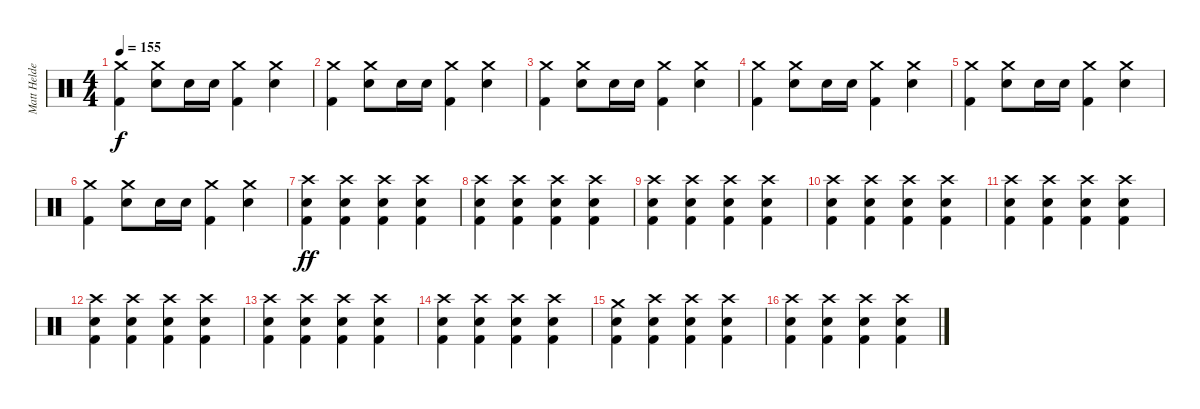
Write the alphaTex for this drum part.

\track ("Matt Helders" "Matt Helde") {instrument percussion}
\staff {score}
\articulation defaults
\ts (4 4)
\tempo 155
\clef neutral
\ks c
("Crash medium (hit)" "Kick (hit) 2").4{dy f} ("Crash medium (hit)" "Snare (hit) 2").8 "Snare (hit) 2".16 "Snare (hit) 2".16 ("Crash medium (hit)" "Kick (hit) 2").4 ("Crash medium (hit)" "Snare (hit) 2").4 |
("Crash medium (hit)" "Kick (hit) 2").4 ("Crash medium (hit)" "Snare (hit) 2").8 "Snare (hit) 2".16 "Snare (hit) 2".16 ("Crash medium (hit)" "Kick (hit) 2").4 ("Crash medium (hit)" "Snare (hit) 2").4 |
("Crash medium (hit)" "Kick (hit) 2").4 ("Crash medium (hit)" "Snare (hit) 2").8 "Snare (hit) 2".16 "Snare (hit) 2".16 ("Crash medium (hit)" "Kick (hit) 2").4 ("Crash medium (hit)" "Snare (hit) 2").4 |
("Crash medium (hit)" "Kick (hit) 2").4 ("Crash medium (hit)" "Snare (hit) 2").8 "Snare (hit) 2".16 "Snare (hit) 2".16 ("Crash medium (hit)" "Kick (hit) 2").4 ("Crash medium (hit)" "Snare (hit) 2").4 |
("Crash medium (hit)" "Kick (hit) 2").4 ("Crash medium (hit)" "Snare (hit) 2").8 "Snare (hit) 2".16 "Snare (hit) 2".16 ("Crash medium (hit)" "Kick (hit) 2").4 ("Crash medium (hit)" "Snare (hit) 2").4 |
("Crash medium (hit)" "Kick (hit) 2").4 ("Crash medium (hit)" "Snare (hit) 2").8 "Snare (hit) 2".16 "Snare (hit) 2".16 ("Crash medium (hit)" "Kick (hit) 2").4 ("Crash medium (hit)" "Snare (hit) 2").4 |
("Crash high (hit)" "Snare (hit) 2" "Kick (hit) 2").4{dy ff} ("Crash high (hit)" "Snare (hit) 2" "Kick (hit) 2").4 ("Crash high (hit)" "Snare (hit) 2" "Kick (hit) 2").4 ("Crash high (hit)" "Snare (hit) 2" "Kick (hit) 2").4 |
("Crash high (hit)" "Snare (hit) 2" "Kick (hit) 2").4 ("Crash high (hit)" "Snare (hit) 2" "Kick (hit) 2").4 ("Crash high (hit)" "Snare (hit) 2" "Kick (hit) 2").4 ("Crash high (hit)" "Snare (hit) 2" "Kick (hit) 2").4 |
("Crash high (hit)" "Snare (hit) 2" "Kick (hit) 2").4 ("Crash high (hit)" "Snare (hit) 2" "Kick (hit) 2").4 ("Crash high (hit)" "Snare (hit) 2" "Kick (hit) 2").4 ("Crash high (hit)" "Snare (hit) 2" "Kick (hit) 2").4 |
("Crash high (hit)" "Snare (hit) 2" "Kick (hit) 2").4 ("Crash high (hit)" "Snare (hit) 2" "Kick (hit) 2").4 ("Crash high (hit)" "Snare (hit) 2" "Kick (hit) 2").4 ("Crash high (hit)" "Snare (hit) 2" "Kick (hit) 2").4 |
("Crash high (hit)" "Snare (hit) 2" "Kick (hit) 2").4 ("Crash high (hit)" "Snare (hit) 2" "Kick (hit) 2").4 ("Crash high (hit)" "Snare (hit) 2" "Kick (hit) 2").4 ("Crash high (hit)" "Snare (hit) 2" "Kick (hit) 2").4 |
("Crash high (hit)" "Snare (hit) 2" "Kick (hit) 2").4 ("Crash high (hit)" "Snare (hit) 2" "Kick (hit) 2").4 ("Crash high (hit)" "Snare (hit) 2" "Kick (hit) 2").4 ("Crash high (hit)" "Snare (hit) 2" "Kick (hit) 2").4 |
("Crash high (hit)" "Snare (hit) 2" "Kick (hit) 2").4 ("Crash high (hit)" "Snare (hit) 2" "Kick (hit) 2").4 ("Crash high (hit)" "Snare (hit) 2" "Kick (hit) 2").4 ("Crash high (hit)" "Snare (hit) 2" "Kick (hit) 2").4 |
("Crash high (hit)" "Snare (hit) 2" "Kick (hit) 2").4 ("Crash high (hit)" "Snare (hit) 2" "Kick (hit) 2").4 ("Crash high (hit)" "Snare (hit) 2" "Kick (hit) 2").4 ("Crash high (hit)" "Snare (hit) 2" "Kick (hit) 2").4 |
("Crash medium (hit)" "Snare (hit) 2" "Kick (hit) 2").4 ("Crash high (hit)" "Snare (hit) 2" "Kick (hit) 2").4 ("Crash high (hit)" "Snare (hit) 2" "Kick (hit) 2").4 ("Crash high (hit)" "Snare (hit) 2" "Kick (hit) 2").4 |
("Crash high (hit)" "Snare (hit) 2" "Kick (hit) 2").4 ("Crash high (hit)" "Snare (hit) 2" "Kick (hit) 2").4 ("Crash high (hit)" "Snare (hit) 2" "Kick (hit) 2").4 ("Crash high (hit)" "Snare (hit) 2" "Kick (hit) 2").4
